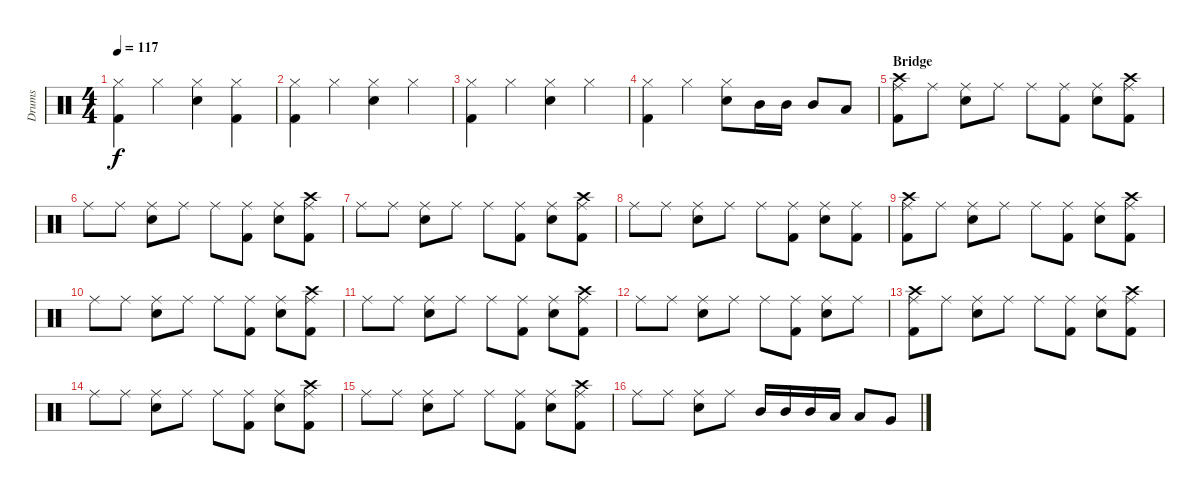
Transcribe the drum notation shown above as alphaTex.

\track ("Drums" "Drums") {instrument percussion}
\staff {score}
\articulation defaults
\ts (4 4)
\tempo 117
\clef neutral
\ks c
("Kick (hit) 2" "Hi-Hat (closed)").4{dy f} "Hi-Hat (closed)".4 ("Snare (hit) 2" "Hi-Hat (closed)").4 ("Kick (hit) 2" "Hi-Hat (closed)").4 |
("Kick (hit) 2" "Hi-Hat (closed)").4 "Hi-Hat (closed)".4 ("Snare (hit) 2" "Hi-Hat (closed)").4 "Hi-Hat (closed)".4 |
("Kick (hit) 2" "Hi-Hat (closed)").4 "Hi-Hat (closed)".4 ("Snare (hit) 2" "Hi-Hat (closed)").4 "Hi-Hat (closed)".4 |
("Kick (hit) 2" "Hi-Hat (closed)").4 "Hi-Hat (closed)".4 ("Snare (hit) 2" "Hi-Hat (closed)").8 "Mid Tom (hit)".16 "Mid Tom (hit)".16 "Mid Tom (hit)".8 "Low Tom (hit)".8 |
\section ("" "Bridge")
("Ride (middle)" "Kick (hit) 2" "Crash high (hit)").8 "Ride (middle)".8 ("Ride (middle)" "Snare (hit) 2").8 "Ride (middle)".8 "Ride (middle)".8 ("Ride (middle)" "Kick (hit) 2").8 ("Ride (middle)" "Snare (hit) 2").8 ("Ride (middle)" "Kick (hit) 2" "Crash high (hit)").8 |
"Ride (middle)".8 "Ride (middle)".8 ("Ride (middle)" "Snare (hit) 2").8 "Ride (middle)".8 "Ride (middle)".8 ("Ride (middle)" "Kick (hit) 2").8 ("Ride (middle)" "Snare (hit) 2").8 ("Ride (middle)" "Kick (hit) 2" "Crash high (hit)").8 |
"Ride (middle)".8 "Ride (middle)".8 ("Ride (middle)" "Snare (hit) 2").8 "Ride (middle)".8 "Ride (middle)".8 ("Ride (middle)" "Kick (hit) 2").8 ("Ride (middle)" "Snare (hit) 2").8 ("Ride (middle)" "Kick (hit) 2" "Crash high (hit)").8 |
"Ride (middle)".8 "Ride (middle)".8 ("Ride (middle)" "Snare (hit) 2").8 "Ride (middle)".8 "Ride (middle)".8 ("Ride (middle)" "Kick (hit) 2").8 ("Ride (middle)" "Snare (hit) 2").8 ("Ride (middle)" "Kick (hit) 2").8 |
("Ride (middle)" "Kick (hit) 2" "Crash high (hit)").8 "Ride (middle)".8 ("Ride (middle)" "Snare (hit) 2").8 "Ride (middle)".8 "Ride (middle)".8 ("Ride (middle)" "Kick (hit) 2").8 ("Ride (middle)" "Snare (hit) 2").8 ("Ride (middle)" "Kick (hit) 2" "Crash high (hit)").8 |
"Ride (middle)".8 "Ride (middle)".8 ("Ride (middle)" "Snare (hit) 2").8 "Ride (middle)".8 "Ride (middle)".8 ("Ride (middle)" "Kick (hit) 2").8 ("Ride (middle)" "Snare (hit) 2").8 ("Ride (middle)" "Kick (hit) 2" "Crash high (hit)").8 |
"Ride (middle)".8 "Ride (middle)".8 ("Ride (middle)" "Snare (hit) 2").8 "Ride (middle)".8 "Ride (middle)".8 ("Ride (middle)" "Kick (hit) 2").8 ("Ride (middle)" "Snare (hit) 2").8 ("Ride (middle)" "Kick (hit) 2" "Crash high (hit)").8 |
"Ride (middle)".8 "Ride (middle)".8 ("Ride (middle)" "Snare (hit) 2").8 "Ride (middle)".8 "Ride (middle)".8 ("Ride (middle)" "Kick (hit) 2").8 ("Ride (middle)" "Snare (hit) 2").8 "Ride (middle)".8 |
("Ride (middle)" "Kick (hit) 2" "Crash high (hit)").8 "Ride (middle)".8 ("Ride (middle)" "Snare (hit) 2").8 "Ride (middle)".8 "Ride (middle)".8 ("Ride (middle)" "Kick (hit) 2").8 ("Ride (middle)" "Snare (hit) 2").8 ("Ride (middle)" "Kick (hit) 2" "Crash high (hit)").8 |
"Ride (middle)".8 "Ride (middle)".8 ("Ride (middle)" "Snare (hit) 2").8 "Ride (middle)".8 "Ride (middle)".8 ("Ride (middle)" "Kick (hit) 2").8 ("Ride (middle)" "Snare (hit) 2").8 ("Ride (middle)" "Kick (hit) 2" "Crash high (hit)").8 |
"Ride (middle)".8 "Ride (middle)".8 ("Ride (middle)" "Snare (hit) 2").8 "Ride (middle)".8 "Ride (middle)".8 ("Ride (middle)" "Kick (hit) 2").8 ("Ride (middle)" "Snare (hit) 2").8 ("Ride (middle)" "Kick (hit) 2" "Crash high (hit)").8 |
"Ride (middle)".8 "Ride (middle)".8 ("Ride (middle)" "Snare (hit) 2").8 "Ride (middle)".8 "Mid Tom (hit)".16 "Mid Tom (hit)".16 "Mid Tom (hit)".16 "Low Tom (hit)".16 "Low Tom (hit)".8 "Very Low Tom (hit)".8
